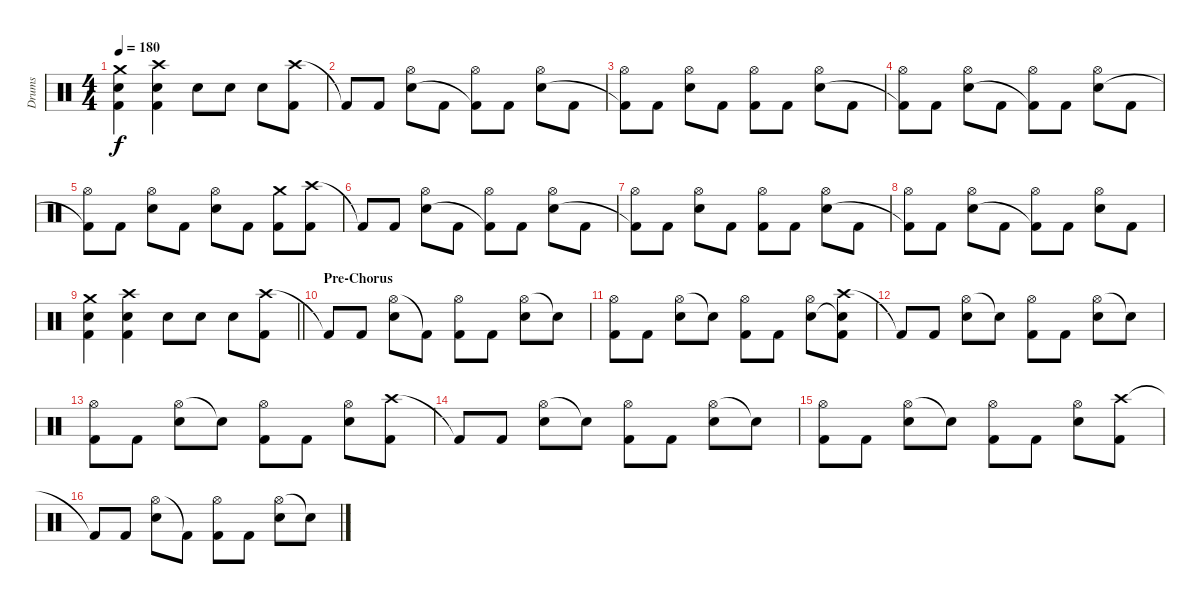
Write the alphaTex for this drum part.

\track ("Drums" "Drums") {instrument percussion}
\staff {score}
\articulation defaults
\ts (4 4)
\tempo 180
\clef neutral
\ks c
("Crash medium (hit)" "Electric Snare (hit)" "Kick (hit) 2").4{dy f} ("Crash high (hit)" "Electric Snare (hit)" "Kick (hit) 2").4 "Electric Snare (hit)".8 "Electric Snare (hit)".8 "Electric Snare (hit)".8 ("Crash high (hit)" "Kick (hit) 2").8 |
"Kick (hit) 2"{t}.8 "Kick (hit) 2".8 ("Hi-Hat (open)" "Electric Snare (hit)").8 "Kick (hit) 2".8 ("Hi-Hat (open)" "Kick (hit) 2"{t}).8 "Kick (hit) 2".8 ("Hi-Hat (open)" "Electric Snare (hit)").8 "Kick (hit) 2".8 |
("Hi-Hat (open)" "Kick (hit) 2"{t}).8 "Kick (hit) 2".8 ("Hi-Hat (open)" "Electric Snare (hit)").8 "Kick (hit) 2".8 ("Hi-Hat (open)" "Kick (hit) 2").8 "Kick (hit) 2".8 ("Hi-Hat (open)" "Electric Snare (hit)").8 "Kick (hit) 2".8 |
("Hi-Hat (open)" "Kick (hit) 2"{t}).8 "Kick (hit) 2".8 ("Hi-Hat (open)" "Electric Snare (hit)").8 "Kick (hit) 2".8 ("Hi-Hat (open)" "Kick (hit) 2"{t}).8 "Kick (hit) 2".8 ("Hi-Hat (open)" "Electric Snare (hit)").8 "Kick (hit) 2".8 |
("Hi-Hat (open)" "Kick (hit) 2"{t}).8 "Kick (hit) 2".8 ("Hi-Hat (open)" "Electric Snare (hit)").8 "Kick (hit) 2".8 ("Hi-Hat (open)" "Electric Snare (hit)").8 "Kick (hit) 2".8 ("Crash medium (hit)" "Kick (hit) 2").8 ("Crash high (hit)" "Kick (hit) 2").8 |
"Kick (hit) 2"{t}.8 "Kick (hit) 2".8 ("Hi-Hat (open)" "Electric Snare (hit)").8 "Kick (hit) 2".8 ("Hi-Hat (open)" "Kick (hit) 2"{t}).8 "Kick (hit) 2".8 ("Hi-Hat (open)" "Electric Snare (hit)").8 "Kick (hit) 2".8 |
("Hi-Hat (open)" "Kick (hit) 2"{t}).8 "Kick (hit) 2".8 ("Hi-Hat (open)" "Electric Snare (hit)").8 "Kick (hit) 2".8 ("Hi-Hat (open)" "Kick (hit) 2").8 "Kick (hit) 2".8 ("Hi-Hat (open)" "Electric Snare (hit)").8 "Kick (hit) 2".8 |
("Hi-Hat (open)" "Kick (hit) 2"{t}).8 "Kick (hit) 2".8 ("Hi-Hat (open)" "Electric Snare (hit)").8 "Kick (hit) 2".8 ("Hi-Hat (open)" "Kick (hit) 2"{t}).8 "Kick (hit) 2".8 ("Hi-Hat (open)" "Electric Snare (hit)").8 "Kick (hit) 2".8 |
\barLineRight lightlight
("Crash medium (hit)" "Electric Snare (hit)" "Kick (hit) 2").4 ("Crash high (hit)" "Electric Snare (hit)" "Kick (hit) 2").4 "Electric Snare (hit)".8 "Electric Snare (hit)".8 "Electric Snare (hit)".8 ("Crash high (hit)" "Kick (hit) 2").8 |
\section ("" "Pre-Chorus")
"Kick (hit) 2"{t}.8 "Kick (hit) 2".8 ("Hi-Hat (open)" "Electric Snare (hit)").8 "Kick (hit) 2"{t}.8 ("Hi-Hat (open)" "Kick (hit) 2").8 "Kick (hit) 2".8 ("Hi-Hat (open)" "Electric Snare (hit)").8 "Snare (hit)"{t}.8 |
("Hi-Hat (open)" "Kick (hit) 2").8 "Kick (hit) 2".8 ("Hi-Hat (open)" "Electric Snare (hit)").8 "Snare (hit)"{t}.8 ("Hi-Hat (open)" "Kick (hit) 2").8 "Kick (hit) 2".8 ("Hi-Hat (open)" "Electric Snare (hit)").8 ("Crash high (hit)" "Snare (hit)"{t} "Kick (hit) 2").8 |
"Kick (hit) 2"{t}.8 "Kick (hit) 2".8 ("Hi-Hat (open)" "Electric Snare (hit)").8 "Snare (hit)"{t}.8 ("Hi-Hat (open)" "Kick (hit) 2").8 "Kick (hit) 2".8 ("Hi-Hat (open)" "Electric Snare (hit)").8 "Snare (hit)"{t}.8 |
("Hi-Hat (open)" "Kick (hit) 2").8 "Kick (hit) 2".8 ("Hi-Hat (open)" "Electric Snare (hit)").8 "Snare (hit)"{t}.8 ("Hi-Hat (open)" "Kick (hit) 2").8 "Kick (hit) 2".8 ("Hi-Hat (open)" "Electric Snare (hit)").8 ("Crash high (hit)" "Kick (hit) 2").8 |
"Kick (hit) 2"{t}.8 "Kick (hit) 2".8 ("Hi-Hat (open)" "Electric Snare (hit)").8 "Snare (hit)"{t}.8 ("Hi-Hat (open)" "Kick (hit) 2").8 "Kick (hit) 2".8 ("Hi-Hat (open)" "Electric Snare (hit)").8 "Snare (hit)"{t}.8 |
("Hi-Hat (open)" "Kick (hit) 2").8 "Kick (hit) 2".8 ("Hi-Hat (open)" "Electric Snare (hit)").8 "Snare (hit)"{t}.8 ("Hi-Hat (open)" "Kick (hit) 2").8 "Kick (hit) 2".8 ("Hi-Hat (open)" "Electric Snare (hit)").8 ("Crash high (hit)" "Kick (hit) 2").8 |
"Kick (hit) 2"{t}.8 "Kick (hit) 2".8 ("Hi-Hat (open)" "Electric Snare (hit)").8 "Kick (hit) 2"{t}.8 ("Hi-Hat (open)" "Kick (hit) 2").8 "Kick (hit) 2".8 ("Hi-Hat (open)" "Electric Snare (hit)").8 "Snare (hit)"{t}.8
